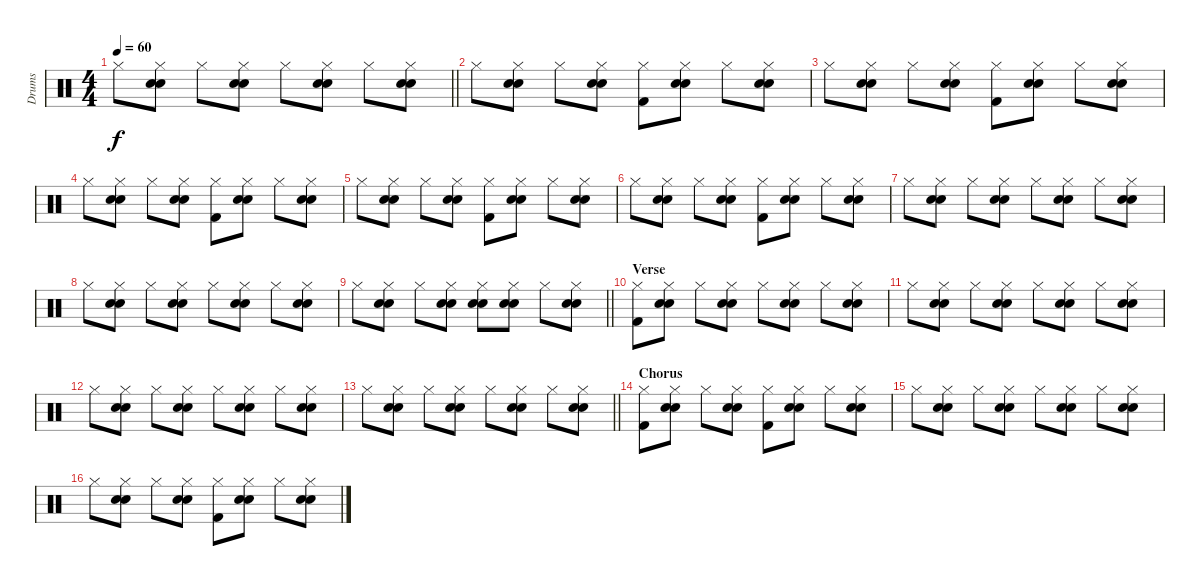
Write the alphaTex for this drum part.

\track ("Drums" "Drums") {instrument percussion}
\staff {score}
\articulation defaults
\ts (4 4)
\tempo 60
\clef neutral
\barLineRight lightlight
\ks c "Hi-Hat (closed)".8{dy f}
("Hi-Hat (closed)" "Electric Snare (hit)" "Snare (hit) 2").8 "Hi-Hat (closed)".8 ("Hi-Hat (closed)" "Electric Snare (hit)" "Snare (hit) 2").8 "Hi-Hat (closed)".8 ("Hi-Hat (closed)" "Electric Snare (hit)" "Snare (hit) 2").8 "Hi-Hat (closed)".8 ("Hi-Hat (closed)" "Electric Snare (hit)" "Snare (hit) 2").8 |
"Hi-Hat (closed)".8 ("Hi-Hat (closed)" "Electric Snare (hit)" "Snare (hit) 2").8 "Hi-Hat (closed)".8 ("Hi-Hat (closed)" "Electric Snare (hit)" "Snare (hit) 2").8 ("Hi-Hat (closed)" "Kick (hit) 2").8 ("Hi-Hat (closed)" "Electric Snare (hit)" "Snare (hit) 2").8 "Hi-Hat (closed)".8 ("Hi-Hat (closed)" "Electric Snare (hit)" "Snare (hit) 2").8 |
"Hi-Hat (closed)".8 ("Hi-Hat (closed)" "Electric Snare (hit)" "Snare (hit) 2").8 "Hi-Hat (closed)".8 ("Hi-Hat (closed)" "Electric Snare (hit)" "Snare (hit) 2").8 ("Hi-Hat (closed)" "Kick (hit) 2").8 ("Hi-Hat (closed)" "Electric Snare (hit)" "Snare (hit) 2").8 "Hi-Hat (closed)".8 ("Hi-Hat (closed)" "Electric Snare (hit)" "Snare (hit) 2").8 |
"Hi-Hat (closed)".8 ("Hi-Hat (closed)" "Electric Snare (hit)" "Snare (hit) 2").8 "Hi-Hat (closed)".8 ("Hi-Hat (closed)" "Electric Snare (hit)" "Snare (hit) 2").8 ("Hi-Hat (closed)" "Kick (hit) 2").8 ("Hi-Hat (closed)" "Electric Snare (hit)" "Snare (hit) 2").8 "Hi-Hat (closed)".8 ("Hi-Hat (closed)" "Electric Snare (hit)" "Snare (hit) 2").8 |
"Hi-Hat (closed)".8 ("Hi-Hat (closed)" "Electric Snare (hit)" "Snare (hit) 2").8 "Hi-Hat (closed)".8 ("Hi-Hat (closed)" "Electric Snare (hit)" "Snare (hit) 2").8 ("Hi-Hat (closed)" "Kick (hit) 2").8 ("Hi-Hat (closed)" "Electric Snare (hit)" "Snare (hit) 2").8 "Hi-Hat (closed)".8 ("Hi-Hat (closed)" "Electric Snare (hit)" "Snare (hit) 2").8 |
"Hi-Hat (closed)".8 ("Hi-Hat (closed)" "Electric Snare (hit)" "Snare (hit) 2").8 "Hi-Hat (closed)".8 ("Hi-Hat (closed)" "Electric Snare (hit)" "Snare (hit) 2").8 ("Hi-Hat (closed)" "Kick (hit) 2").8 ("Hi-Hat (closed)" "Electric Snare (hit)" "Snare (hit) 2").8 "Hi-Hat (closed)".8 ("Hi-Hat (closed)" "Electric Snare (hit)" "Snare (hit) 2").8 |
"Hi-Hat (closed)".8 ("Hi-Hat (closed)" "Electric Snare (hit)" "Snare (hit) 2").8 "Hi-Hat (closed)".8 ("Hi-Hat (closed)" "Electric Snare (hit)" "Snare (hit) 2").8 "Hi-Hat (closed)".8 ("Hi-Hat (closed)" "Electric Snare (hit)" "Snare (hit) 2").8 "Hi-Hat (closed)".8 ("Hi-Hat (closed)" "Electric Snare (hit)" "Snare (hit) 2").8 |
"Hi-Hat (closed)".8 ("Hi-Hat (closed)" "Electric Snare (hit)" "Snare (hit) 2").8 "Hi-Hat (closed)".8 ("Hi-Hat (closed)" "Electric Snare (hit)" "Snare (hit) 2").8 "Hi-Hat (closed)".8 ("Hi-Hat (closed)" "Electric Snare (hit)" "Snare (hit) 2").8 "Hi-Hat (closed)".8 ("Hi-Hat (closed)" "Electric Snare (hit)" "Snare (hit) 2").8 |
\barLineRight lightlight "Hi-Hat (closed)".8
("Hi-Hat (closed)" "Electric Snare (hit)" "Snare (hit) 2").8 "Hi-Hat (closed)".8 ("Hi-Hat (closed)" "Electric Snare (hit)" "Snare (hit) 2").8 ("Hi-Hat (closed)" "Electric Snare (hit)" "Snare (hit) 2").8 ("Hi-Hat (closed)" "Electric Snare (hit)" "Snare (hit) 2").8 "Hi-Hat (closed)".8 ("Hi-Hat (closed)" "Electric Snare (hit)" "Snare (hit) 2").8 |
\section ("" "Verse")
("Hi-Hat (closed)" "Kick (hit) 2").8 ("Hi-Hat (closed)" "Electric Snare (hit)" "Snare (hit) 2").8 "Hi-Hat (closed)".8 ("Hi-Hat (closed)" "Electric Snare (hit)" "Snare (hit) 2").8 "Hi-Hat (closed)".8 ("Hi-Hat (closed)" "Electric Snare (hit)" "Snare (hit) 2").8 "Hi-Hat (closed)".8 ("Hi-Hat (closed)" "Electric Snare (hit)" "Snare (hit) 2").8 |
"Hi-Hat (closed)".8 ("Hi-Hat (closed)" "Electric Snare (hit)" "Snare (hit) 2").8 "Hi-Hat (closed)".8 ("Hi-Hat (closed)" "Electric Snare (hit)" "Snare (hit) 2").8 "Hi-Hat (closed)".8 ("Hi-Hat (closed)" "Electric Snare (hit)" "Snare (hit) 2").8 "Hi-Hat (closed)".8 ("Hi-Hat (closed)" "Electric Snare (hit)" "Snare (hit) 2").8 |
"Hi-Hat (closed)".8 ("Hi-Hat (closed)" "Electric Snare (hit)" "Snare (hit) 2").8 "Hi-Hat (closed)".8 ("Hi-Hat (closed)" "Electric Snare (hit)" "Snare (hit) 2").8 "Hi-Hat (closed)".8 ("Hi-Hat (closed)" "Electric Snare (hit)" "Snare (hit) 2").8 "Hi-Hat (closed)".8 ("Hi-Hat (closed)" "Electric Snare (hit)" "Snare (hit) 2").8 |
\barLineRight lightlight "Hi-Hat (closed)".8
("Hi-Hat (closed)" "Electric Snare (hit)" "Snare (hit) 2").8 "Hi-Hat (closed)".8 ("Hi-Hat (closed)" "Electric Snare (hit)" "Snare (hit) 2").8 "Hi-Hat (closed)".8 ("Hi-Hat (closed)" "Electric Snare (hit)" "Snare (hit) 2").8 "Hi-Hat (closed)".8 ("Hi-Hat (closed)" "Electric Snare (hit)" "Snare (hit) 2").8 |
\section ("" "Chorus")
("Hi-Hat (closed)" "Kick (hit) 2").8 ("Hi-Hat (closed)" "Electric Snare (hit)" "Snare (hit) 2").8 "Hi-Hat (closed)".8 ("Hi-Hat (closed)" "Electric Snare (hit)" "Snare (hit) 2").8 ("Hi-Hat (closed)" "Kick (hit) 2").8 ("Hi-Hat (closed)" "Electric Snare (hit)" "Snare (hit) 2").8 "Hi-Hat (closed)".8 ("Hi-Hat (closed)" "Electric Snare (hit)" "Snare (hit) 2").8 |
"Hi-Hat (closed)".8 ("Hi-Hat (closed)" "Electric Snare (hit)" "Snare (hit) 2").8 "Hi-Hat (closed)".8 ("Hi-Hat (closed)" "Electric Snare (hit)" "Snare (hit) 2").8 "Hi-Hat (closed)".8 ("Hi-Hat (closed)" "Electric Snare (hit)" "Snare (hit) 2").8 "Hi-Hat (closed)".8 ("Hi-Hat (closed)" "Electric Snare (hit)" "Snare (hit) 2").8 |
"Hi-Hat (closed)".8 ("Hi-Hat (closed)" "Electric Snare (hit)" "Snare (hit) 2").8 "Hi-Hat (closed)".8 ("Hi-Hat (closed)" "Electric Snare (hit)" "Snare (hit) 2").8 ("Hi-Hat (closed)" "Kick (hit) 2").8 ("Hi-Hat (closed)" "Electric Snare (hit)" "Snare (hit) 2").8 "Hi-Hat (closed)".8 ("Hi-Hat (closed)" "Electric Snare (hit)" "Snare (hit) 2").8
